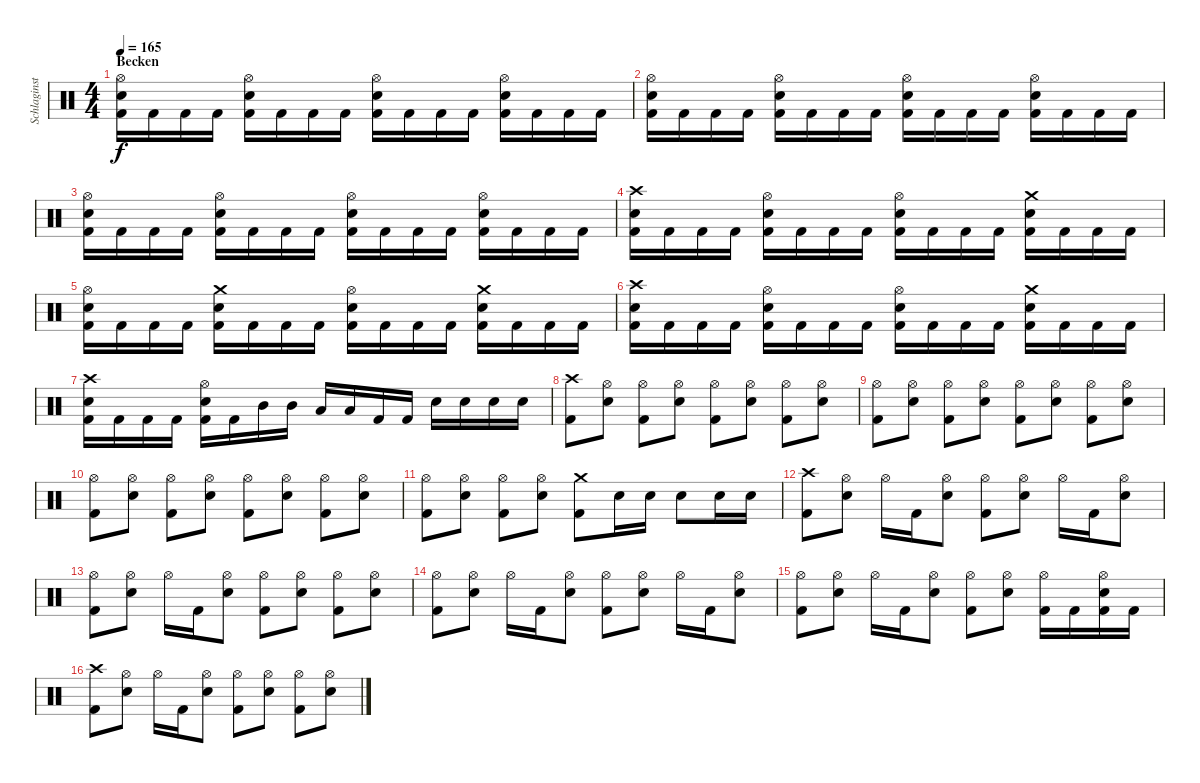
\track ("Schlaginstrumente - Auswahl" "Schlaginst") {instrument percussion}
\staff {score}
\articulation defaults
\ts (4 4)
\section ("" "Becken")
\tempo 165
\clef neutral
\ks c
("Hi-Hat (open)" "Snare (hit) 2" "Kick (hit) 2").16{dy f} "Kick (hit) 2".16 "Kick (hit) 2".16 "Kick (hit) 2".16 ("Hi-Hat (open)" "Snare (hit) 2" "Kick (hit) 2").16 "Kick (hit) 2".16 "Kick (hit) 2".16 "Kick (hit) 2".16 ("Hi-Hat (open)" "Snare (hit) 2" "Kick (hit) 2").16 "Kick (hit) 2".16 "Kick (hit) 2".16 "Kick (hit) 2".16 ("Hi-Hat (open)" "Snare (hit) 2" "Kick (hit) 2").16 "Kick (hit) 2".16 "Kick (hit) 2".16 "Kick (hit) 2".16 |
("Hi-Hat (open)" "Snare (hit) 2" "Kick (hit) 2").16 "Kick (hit) 2".16 "Kick (hit) 2".16 "Kick (hit) 2".16 ("Hi-Hat (open)" "Snare (hit) 2" "Kick (hit) 2").16 "Kick (hit) 2".16 "Kick (hit) 2".16 "Kick (hit) 2".16 ("Hi-Hat (open)" "Snare (hit) 2" "Kick (hit) 2").16 "Kick (hit) 2".16 "Kick (hit) 2".16 "Kick (hit) 2".16 ("Hi-Hat (open)" "Snare (hit) 2" "Kick (hit) 2").16 "Kick (hit) 2".16 "Kick (hit) 2".16 "Kick (hit) 2".16 |
("Hi-Hat (open)" "Snare (hit) 2" "Kick (hit) 2").16 "Kick (hit) 2".16 "Kick (hit) 2".16 "Kick (hit) 2".16 ("Hi-Hat (open)" "Snare (hit) 2" "Kick (hit) 2").16 "Kick (hit) 2".16 "Kick (hit) 2".16 "Kick (hit) 2".16 ("Hi-Hat (open)" "Snare (hit) 2" "Kick (hit) 2").16 "Kick (hit) 2".16 "Kick (hit) 2".16 "Kick (hit) 2".16 ("Hi-Hat (open)" "Snare (hit) 2" "Kick (hit) 2").16 "Kick (hit) 2".16 "Kick (hit) 2".16 "Kick (hit) 2".16 |
("Crash high (hit)" "Snare (hit) 2" "Kick (hit) 2").16 "Kick (hit) 2".16 "Kick (hit) 2".16 "Kick (hit) 2".16 ("Hi-Hat (open)" "Snare (hit) 2" "Kick (hit) 2").16 "Kick (hit) 2".16 "Kick (hit) 2".16 "Kick (hit) 2".16 ("Hi-Hat (open)" "Snare (hit) 2" "Kick (hit) 2").16 "Kick (hit) 2".16 "Kick (hit) 2".16 "Kick (hit) 2".16 ("Crash medium (hit)" "Snare (hit) 2" "Kick (hit) 2").16 "Kick (hit) 2".16 "Kick (hit) 2".16 "Kick (hit) 2".16 |
("Hi-Hat (open)" "Snare (hit) 2" "Kick (hit) 2").16 "Kick (hit) 2".16 "Kick (hit) 2".16 "Kick (hit) 2".16 ("Crash medium (hit)" "Snare (hit) 2" "Kick (hit) 2").16 "Kick (hit) 2".16 "Kick (hit) 2".16 "Kick (hit) 2".16 ("Hi-Hat (open)" "Snare (hit) 2" "Kick (hit) 2").16 "Kick (hit) 2".16 "Kick (hit) 2".16 "Kick (hit) 2".16 ("Crash medium (hit)" "Snare (hit) 2" "Kick (hit) 2").16 "Kick (hit) 2".16 "Kick (hit) 2".16 "Kick (hit) 2".16 |
("Crash high (hit)" "Snare (hit) 2" "Kick (hit) 2").16 "Kick (hit) 2".16 "Kick (hit) 2".16 "Kick (hit) 2".16 ("Hi-Hat (open)" "Snare (hit) 2" "Kick (hit) 2").16 "Kick (hit) 2".16 "Kick (hit) 2".16 "Kick (hit) 2".16 ("Hi-Hat (open)" "Snare (hit) 2" "Kick (hit) 2").16 "Kick (hit) 2".16 "Kick (hit) 2".16 "Kick (hit) 2".16 ("Crash medium (hit)" "Snare (hit) 2" "Kick (hit) 2").16 "Kick (hit) 2".16 "Kick (hit) 2".16 "Kick (hit) 2".16 |
("Crash high (hit)" "Snare (hit) 2" "Kick (hit) 2").16 "Kick (hit) 2".16 "Kick (hit) 2".16 "Kick (hit) 2".16 ("Hi-Hat (open)" "Snare (hit) 2" "Kick (hit) 2").16 "Kick (hit) 2".16 "Mid Tom (hit)".16 "Mid Tom (hit)".16 "Low Tom (hit)".16 "Low Tom (hit)".16 "Kick (hit) 2".16 "Kick (hit) 2".16 "Snare (hit) 2".16 "Snare (hit) 2".16 "Snare (hit) 2".16 "Snare (hit) 2".16 |
("Crash high (hit)" "Kick (hit) 2").8 ("Hi-Hat (open)" "Snare (hit) 2").8 ("Hi-Hat (open)" "Kick (hit) 2").8 ("Hi-Hat (open)" "Snare (hit) 2").8 ("Hi-Hat (open)" "Kick (hit) 2").8 ("Hi-Hat (open)" "Snare (hit) 2").8 ("Hi-Hat (open)" "Kick (hit) 2").8 ("Hi-Hat (open)" "Snare (hit) 2").8 |
("Hi-Hat (open)" "Kick (hit) 2").8 ("Hi-Hat (open)" "Snare (hit) 2").8 ("Hi-Hat (open)" "Kick (hit) 2").8 ("Hi-Hat (open)" "Snare (hit) 2").8 ("Hi-Hat (open)" "Kick (hit) 2").8 ("Hi-Hat (open)" "Snare (hit) 2").8 ("Hi-Hat (open)" "Kick (hit) 2").8 ("Hi-Hat (open)" "Snare (hit) 2").8 |
("Hi-Hat (open)" "Kick (hit) 2").8 ("Hi-Hat (open)" "Snare (hit) 2").8 ("Hi-Hat (open)" "Kick (hit) 2").8 ("Hi-Hat (open)" "Snare (hit) 2").8 ("Hi-Hat (open)" "Kick (hit) 2").8 ("Hi-Hat (open)" "Snare (hit) 2").8 ("Hi-Hat (open)" "Kick (hit) 2").8 ("Hi-Hat (open)" "Snare (hit) 2").8 |
("Hi-Hat (open)" "Kick (hit) 2").8 ("Hi-Hat (open)" "Snare (hit) 2").8 ("Hi-Hat (open)" "Kick (hit) 2").8 ("Hi-Hat (open)" "Snare (hit) 2").8 ("Crash medium (hit)" "Kick (hit) 2").8 "Snare (hit) 2".16 "Snare (hit) 2".16 "Snare (hit) 2".8 "Snare (hit) 2".16 "Snare (hit) 2".16 |
("Crash high (hit)" "Kick (hit) 2").8 ("Hi-Hat (open)" "Snare (hit) 2").8 "Hi-Hat (open)".16 "Kick (hit) 2".16 ("Hi-Hat (open)" "Snare (hit) 2").8 ("Hi-Hat (open)" "Kick (hit) 2").8 ("Hi-Hat (open)" "Snare (hit) 2").8 "Hi-Hat (open)".16 "Kick (hit) 2".16 ("Hi-Hat (open)" "Snare (hit) 2").8 |
("Hi-Hat (open)" "Kick (hit) 2").8 ("Hi-Hat (open)" "Snare (hit) 2").8 "Hi-Hat (open)".16 "Kick (hit) 2".16 ("Hi-Hat (open)" "Snare (hit) 2").8 ("Hi-Hat (open)" "Kick (hit) 2").8 ("Hi-Hat (open)" "Snare (hit) 2").8 ("Hi-Hat (open)" "Kick (hit) 2").8 ("Hi-Hat (open)" "Snare (hit) 2").8 |
("Hi-Hat (open)" "Kick (hit) 2").8 ("Hi-Hat (open)" "Snare (hit) 2").8 "Hi-Hat (open)".16 "Kick (hit) 2".16 ("Hi-Hat (open)" "Snare (hit) 2").8 ("Hi-Hat (open)" "Kick (hit) 2").8 ("Hi-Hat (open)" "Snare (hit) 2").8 "Hi-Hat (open)".16 "Kick (hit) 2".16 ("Hi-Hat (open)" "Snare (hit) 2").8 |
("Hi-Hat (open)" "Kick (hit) 2").8 ("Hi-Hat (open)" "Snare (hit) 2").8 "Hi-Hat (open)".16 "Kick (hit) 2".16 ("Hi-Hat (open)" "Snare (hit) 2").8 ("Hi-Hat (open)" "Kick (hit) 2").8 ("Hi-Hat (open)" "Snare (hit) 2").8 ("Hi-Hat (open)" "Kick (hit) 2").16 "Kick (hit) 2".16 ("Hi-Hat (open)" "Snare (hit) 2" "Kick (hit) 2").16 "Kick (hit) 2".16 |
("Crash high (hit)" "Kick (hit) 2").8 ("Hi-Hat (open)" "Snare (hit) 2").8 "Hi-Hat (open)".16 "Kick (hit) 2".16 ("Hi-Hat (open)" "Snare (hit) 2").8 ("Hi-Hat (open)" "Kick (hit) 2").8 ("Hi-Hat (open)" "Snare (hit) 2").8 ("Hi-Hat (open)" "Kick (hit) 2").8 ("Hi-Hat (open)" "Snare (hit) 2").8
